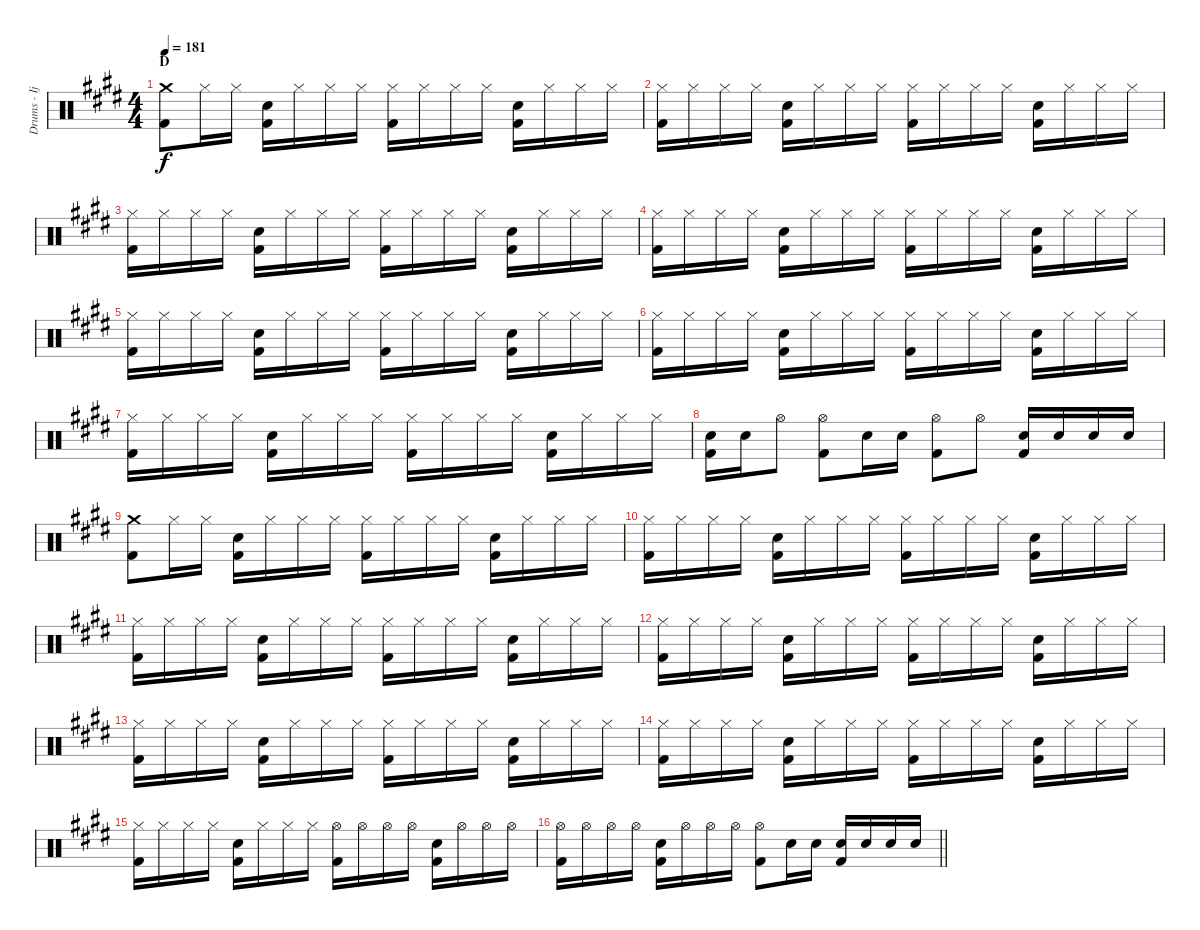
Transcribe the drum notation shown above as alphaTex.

\track ("Drums - Ijichi" "Drums - Ij") {instrument percussion}
\staff {score}
\articulation defaults
\ts (4 4)
\section ("" "D")
\tempo 181
\clef neutral
\ks e
("Crash medium (hit)" "Kick (hit) 2").8{dy f} "Hi-Hat (closed)".16 "Hi-Hat (closed)".16 ("Electric Snare (hit)" "Kick (hit) 2").16 "Hi-Hat (closed)".16 "Hi-Hat (closed)".16 "Hi-Hat (closed)".16 ("Hi-Hat (closed)" "Kick (hit) 2").16 "Hi-Hat (closed)".16 "Hi-Hat (closed)".16 "Hi-Hat (closed)".16 ("Electric Snare (hit)" "Kick (hit) 2").16 "Hi-Hat (closed)".16 "Hi-Hat (closed)".16 "Hi-Hat (closed)".16 |
("Hi-Hat (closed)" "Kick (hit) 2").16 "Hi-Hat (closed)".16 "Hi-Hat (closed)".16 "Hi-Hat (closed)".16 ("Electric Snare (hit)" "Kick (hit) 2").16 "Hi-Hat (closed)".16 "Hi-Hat (closed)".16 "Hi-Hat (closed)".16 ("Hi-Hat (closed)" "Kick (hit) 2").16 "Hi-Hat (closed)".16 "Hi-Hat (closed)".16 "Hi-Hat (closed)".16 ("Electric Snare (hit)" "Kick (hit) 2").16 "Hi-Hat (closed)".16 "Hi-Hat (closed)".16 "Hi-Hat (closed)".16 |
("Hi-Hat (closed)" "Kick (hit) 2").16 "Hi-Hat (closed)".16 "Hi-Hat (closed)".16 "Hi-Hat (closed)".16 ("Electric Snare (hit)" "Kick (hit) 2").16 "Hi-Hat (closed)".16 "Hi-Hat (closed)".16 "Hi-Hat (closed)".16 ("Hi-Hat (closed)" "Kick (hit) 2").16 "Hi-Hat (closed)".16 "Hi-Hat (closed)".16 "Hi-Hat (closed)".16 ("Electric Snare (hit)" "Kick (hit) 2").16 "Hi-Hat (closed)".16 "Hi-Hat (closed)".16 "Hi-Hat (closed)".16 |
("Hi-Hat (closed)" "Kick (hit) 2").16 "Hi-Hat (closed)".16 "Hi-Hat (closed)".16 "Hi-Hat (closed)".16 ("Electric Snare (hit)" "Kick (hit) 2").16 "Hi-Hat (closed)".16 "Hi-Hat (closed)".16 "Hi-Hat (closed)".16 ("Hi-Hat (closed)" "Kick (hit) 2").16 "Hi-Hat (closed)".16 "Hi-Hat (closed)".16 "Hi-Hat (closed)".16 ("Electric Snare (hit)" "Kick (hit) 2").16 "Hi-Hat (closed)".16 "Hi-Hat (closed)".16 "Hi-Hat (closed)".16 |
("Hi-Hat (closed)" "Kick (hit) 2").16 "Hi-Hat (closed)".16 "Hi-Hat (closed)".16 "Hi-Hat (closed)".16 ("Electric Snare (hit)" "Kick (hit) 2").16 "Hi-Hat (closed)".16 "Hi-Hat (closed)".16 "Hi-Hat (closed)".16 ("Hi-Hat (closed)" "Kick (hit) 2").16 "Hi-Hat (closed)".16 "Hi-Hat (closed)".16 "Hi-Hat (closed)".16 ("Electric Snare (hit)" "Kick (hit) 2").16 "Hi-Hat (closed)".16 "Hi-Hat (closed)".16 "Hi-Hat (closed)".16 |
("Hi-Hat (closed)" "Kick (hit) 2").16 "Hi-Hat (closed)".16 "Hi-Hat (closed)".16 "Hi-Hat (closed)".16 ("Electric Snare (hit)" "Kick (hit) 2").16 "Hi-Hat (closed)".16 "Hi-Hat (closed)".16 "Hi-Hat (closed)".16 ("Hi-Hat (closed)" "Kick (hit) 2").16 "Hi-Hat (closed)".16 "Hi-Hat (closed)".16 "Hi-Hat (closed)".16 ("Electric Snare (hit)" "Kick (hit) 2").16 "Hi-Hat (closed)".16 "Hi-Hat (closed)".16 "Hi-Hat (closed)".16 |
("Hi-Hat (closed)" "Kick (hit) 2").16 "Hi-Hat (closed)".16 "Hi-Hat (closed)".16 "Hi-Hat (closed)".16 ("Electric Snare (hit)" "Kick (hit) 2").16 "Hi-Hat (closed)".16 "Hi-Hat (closed)".16 "Hi-Hat (closed)".16 ("Hi-Hat (closed)" "Kick (hit) 2").16 "Hi-Hat (closed)".16 "Hi-Hat (closed)".16 "Hi-Hat (closed)".16 ("Electric Snare (hit)" "Kick (hit) 2").16 "Hi-Hat (closed)".16 "Hi-Hat (closed)".16 "Hi-Hat (closed)".16 |
("Electric Snare (hit)" "Kick (hit) 2").16 "Electric Snare (hit)".16 "Hi-Hat (open)".8 ("Hi-Hat (open)" "Kick (hit) 2").8 "Electric Snare (hit)".16 "Electric Snare (hit)".16 ("Hi-Hat (open)" "Kick (hit) 2").8 "Hi-Hat (open)".8 ("Electric Snare (hit)" "Kick (hit) 2").16 "Electric Snare (hit)".16 "Electric Snare (hit)".16 "Electric Snare (hit)".16 |
("Crash medium (hit)" "Kick (hit) 2").8 "Hi-Hat (closed)".16 "Hi-Hat (closed)".16 ("Electric Snare (hit)" "Kick (hit) 2").16 "Hi-Hat (closed)".16 "Hi-Hat (closed)".16 "Hi-Hat (closed)".16 ("Hi-Hat (closed)" "Kick (hit) 2").16 "Hi-Hat (closed)".16 "Hi-Hat (closed)".16 "Hi-Hat (closed)".16 ("Electric Snare (hit)" "Kick (hit) 2").16 "Hi-Hat (closed)".16 "Hi-Hat (closed)".16 "Hi-Hat (closed)".16 |
("Hi-Hat (closed)" "Kick (hit) 2").16 "Hi-Hat (closed)".16 "Hi-Hat (closed)".16 "Hi-Hat (closed)".16 ("Electric Snare (hit)" "Kick (hit) 2").16 "Hi-Hat (closed)".16 "Hi-Hat (closed)".16 "Hi-Hat (closed)".16 ("Hi-Hat (closed)" "Kick (hit) 2").16 "Hi-Hat (closed)".16 "Hi-Hat (closed)".16 "Hi-Hat (closed)".16 ("Electric Snare (hit)" "Kick (hit) 2").16 "Hi-Hat (closed)".16 "Hi-Hat (closed)".16 "Hi-Hat (closed)".16 |
("Hi-Hat (closed)" "Kick (hit) 2").16 "Hi-Hat (closed)".16 "Hi-Hat (closed)".16 "Hi-Hat (closed)".16 ("Electric Snare (hit)" "Kick (hit) 2").16 "Hi-Hat (closed)".16 "Hi-Hat (closed)".16 "Hi-Hat (closed)".16 ("Hi-Hat (closed)" "Kick (hit) 2").16 "Hi-Hat (closed)".16 "Hi-Hat (closed)".16 "Hi-Hat (closed)".16 ("Electric Snare (hit)" "Kick (hit) 2").16 "Hi-Hat (closed)".16 "Hi-Hat (closed)".16 "Hi-Hat (closed)".16 |
("Hi-Hat (closed)" "Kick (hit) 2").16 "Hi-Hat (closed)".16 "Hi-Hat (closed)".16 "Hi-Hat (closed)".16 ("Electric Snare (hit)" "Kick (hit) 2").16 "Hi-Hat (closed)".16 "Hi-Hat (closed)".16 "Hi-Hat (closed)".16 ("Hi-Hat (closed)" "Kick (hit) 2").16 "Hi-Hat (closed)".16 "Hi-Hat (closed)".16 "Hi-Hat (closed)".16 ("Electric Snare (hit)" "Kick (hit) 2").16 "Hi-Hat (closed)".16 "Hi-Hat (closed)".16 "Hi-Hat (closed)".16 |
("Hi-Hat (closed)" "Kick (hit) 2").16 "Hi-Hat (closed)".16 "Hi-Hat (closed)".16 "Hi-Hat (closed)".16 ("Electric Snare (hit)" "Kick (hit) 2").16 "Hi-Hat (closed)".16 "Hi-Hat (closed)".16 "Hi-Hat (closed)".16 ("Hi-Hat (closed)" "Kick (hit) 2").16 "Hi-Hat (closed)".16 "Hi-Hat (closed)".16 "Hi-Hat (closed)".16 ("Electric Snare (hit)" "Kick (hit) 2").16 "Hi-Hat (closed)".16 "Hi-Hat (closed)".16 "Hi-Hat (closed)".16 |
("Hi-Hat (closed)" "Kick (hit) 2").16 "Hi-Hat (closed)".16 "Hi-Hat (closed)".16 "Hi-Hat (closed)".16 ("Electric Snare (hit)" "Kick (hit) 2").16 "Hi-Hat (closed)".16 "Hi-Hat (closed)".16 "Hi-Hat (closed)".16 ("Hi-Hat (closed)" "Kick (hit) 2").16 "Hi-Hat (closed)".16 "Hi-Hat (closed)".16 "Hi-Hat (closed)".16 ("Electric Snare (hit)" "Kick (hit) 2").16 "Hi-Hat (closed)".16 "Hi-Hat (closed)".16 "Hi-Hat (closed)".16 |
("Hi-Hat (closed)" "Kick (hit) 2").16 "Hi-Hat (closed)".16 "Hi-Hat (closed)".16 "Hi-Hat (closed)".16 ("Electric Snare (hit)" "Kick (hit) 2").16 "Hi-Hat (closed)".16 "Hi-Hat (closed)".16 "Hi-Hat (closed)".16 ("Hi-Hat (open)" "Kick (hit) 2").16 "Hi-Hat (open)".16 "Hi-Hat (open)".16 "Hi-Hat (open)".16 ("Electric Snare (hit)" "Kick (hit) 2").16 "Hi-Hat (open)".16 "Hi-Hat (open)".16 "Hi-Hat (open)".16 |
\barLineRight lightlight
("Hi-Hat (open)" "Kick (hit) 2").16 "Hi-Hat (open)".16 "Hi-Hat (open)".16 "Hi-Hat (open)".16 ("Electric Snare (hit)" "Kick (hit) 2").16 "Hi-Hat (open)".16 "Hi-Hat (open)".16 "Hi-Hat (open)".16 ("Hi-Hat (open)" "Kick (hit) 2").8 "Electric Snare (hit)".16 "Electric Snare (hit)".16 ("Electric Snare (hit)" "Kick (hit) 2").16 "Electric Snare (hit)".16 "Electric Snare (hit)".16 "Electric Snare (hit)".16
